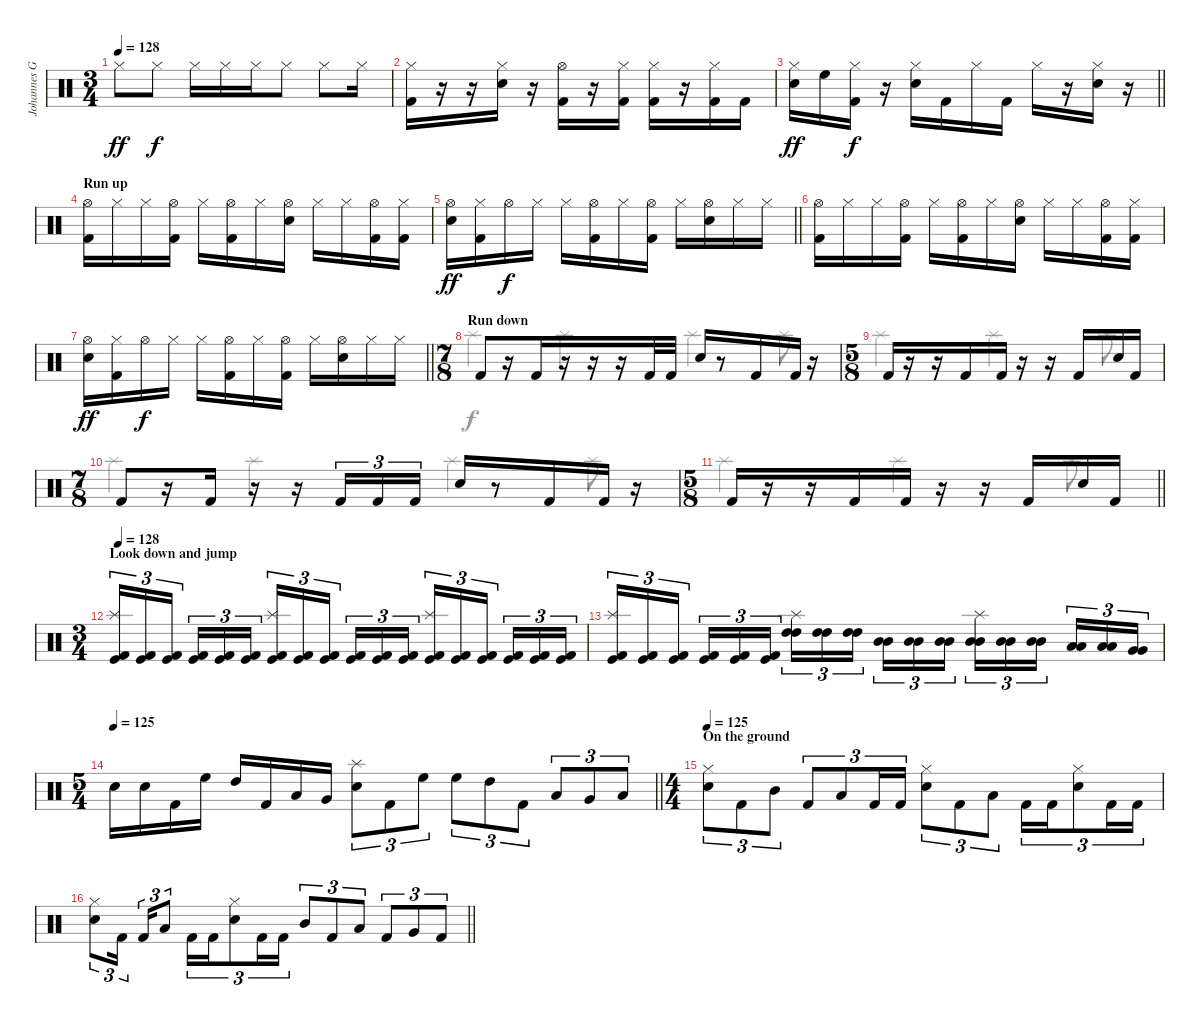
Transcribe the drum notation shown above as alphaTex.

\track ("Johannes Grossmann" "Johannes G") {instrument percussion}
\staff {score}
\articulation defaults
\voice
\ts (3 4)
\tempo 128
\clef neutral
\ks c "Hi-Hat (closed)".8{dy ff} "Hi-Hat (closed)".8{dy f} "Hi-Hat (closed)".16 "Hi-Hat (closed)".16 "Hi-Hat (closed)".16 "Hi-Hat (closed)".8 "Hi-Hat (closed)".8 "Hi-Hat (closed)".16
|
("Hi-Hat (closed)" "Kick (hit) 2").16 r.16 r.16 ("Hi-Hat (closed)" "Snare (hit) 2").16 r.16 ("Hi-Hat (open)" "Kick (hit) 2").16 r.16 ("Hi-Hat (closed)" "Kick (hit) 2").16 ("Hi-Hat (closed)" "Kick (hit) 2").16 r.16 ("Hi-Hat (closed)" "Kick (hit) 2").16 "Kick (hit) 2".16 |
\barLineRight lightlight
("Hi-Hat (closed)" "Snare (hit) 2").16{dy ff} "High Floor Tom (hit)".16 ("Hi-Hat (closed)" "Kick (hit) 2").16{dy f} r.16 ("Hi-Hat (closed)" "Snare (hit) 2").16 "Kick (hit) 2".16 "Hi-Hat (closed)".16 "Kick (hit) 2".16 "Hi-Hat (closed)".16 r.16 ("Hi-Hat (closed)" "Snare (hit) 2").16 r.16 |
\section ("" "Run up")
("Hi-Hat (open)" "Kick (hit) 2").16 "Hi-Hat (closed)".16 "Hi-Hat (closed)".16 ("Hi-Hat (open)" "Kick (hit) 2").16 "Hi-Hat (closed)".16 ("Hi-Hat (open)" "Kick (hit) 2").16 "Hi-Hat (closed)".16 ("Hi-Hat (open)" "Snare (hit) 2").16 "Hi-Hat (closed)".16 "Hi-Hat (closed)".16 ("Hi-Hat (open)" "Kick (hit) 2").16 ("Hi-Hat (closed)" "Kick (hit) 2").16 |
\barLineRight lightlight
("Hi-Hat (open)" "Snare (hit) 2").16{dy ff} ("Hi-Hat (closed)" "Kick (hit) 2").16 "Hi-Hat (open)".16{dy f} "Hi-Hat (closed)".16 "Hi-Hat (closed)".16 ("Hi-Hat (open)" "Kick (hit) 2").16 "Hi-Hat (closed)".16 ("Hi-Hat (open)" "Kick (hit) 2").16 "Hi-Hat (closed)".16 ("Hi-Hat (open)" "Snare (hit) 2").16 "Hi-Hat (closed)".16 "Hi-Hat (closed)".16 |
("Hi-Hat (open)" "Kick (hit) 2").16 "Hi-Hat (closed)".16 "Hi-Hat (closed)".16 ("Hi-Hat (open)" "Kick (hit) 2").16 "Hi-Hat (closed)".16 ("Hi-Hat (open)" "Kick (hit) 2").16 "Hi-Hat (closed)".16 ("Hi-Hat (open)" "Snare (hit) 2").16 "Hi-Hat (closed)".16 "Hi-Hat (closed)".16 ("Hi-Hat (open)" "Kick (hit) 2").16 ("Hi-Hat (closed)" "Kick (hit) 2").16 |
\barLineRight lightlight
("Hi-Hat (open)" "Snare (hit) 2").16{dy ff} ("Hi-Hat (closed)" "Kick (hit) 2").16 "Hi-Hat (open)".16{dy f} "Hi-Hat (closed)".16 "Hi-Hat (closed)".16 ("Hi-Hat (open)" "Kick (hit) 2").16 "Hi-Hat (closed)".16 ("Hi-Hat (open)" "Kick (hit) 2").16 "Hi-Hat (closed)".16 ("Hi-Hat (open)" "Snare (hit) 2").16 "Hi-Hat (closed)".16 "Hi-Hat (closed)".16 |
\ts (7 8)
\section ("" "Run down")
"Kick (hit) 2".8 r.16 "Kick (hit) 2".16 r.16 r.16 r.16 "Kick (hit) 2".32 "Kick (hit) 2".32 "Snare (hit) 2".16 r.8 "Kick (hit) 2".16 "Kick (hit) 2".16 r.16 |
\ts (5 8)
"Kick (hit) 2".16 r.16 r.16 "Kick (hit) 2".16 "Kick (hit) 2".16 r.16 r.16 "Kick (hit) 2".16 "Snare (hit) 2".16 "Kick (hit) 2".16 |
\ts (7 8)
"Kick (hit) 2".8 r.16 "Kick (hit) 2".16 r.16 r.16 "Kick (hit) 2".16{tu (3 2)} "Kick (hit) 2".16{tu (3 2)} "Kick (hit) 2".16{tu (3 2)} "Snare (hit) 2".16 r.8 "Kick (hit) 2".16 "Kick (hit) 2".16 r.16 |
\ts (5 8)
\barLineRight lightlight "Kick (hit) 2".16
r.16 r.16 "Kick (hit) 2".16 "Kick (hit) 2".16 r.16 r.16 "Kick (hit) 2".16 "Snare (hit) 2".16 "Kick (hit) 2".16 |
\ts (3 4)
\section ("" "Look down and jump")
\tempo 128
("Splash (hit)" "Kick (hit)" "Kick (hit) 2").16{tu (3 2)} ("Kick (hit)" "Kick (hit) 2").16{tu (3 2)} ("Kick (hit)" "Kick (hit) 2").16{tu (3 2) beam splitsecondary} ("Kick (hit)" "Kick (hit) 2").16{tu (3 2)} ("Kick (hit)" "Kick (hit) 2").16{tu (3 2)} ("Kick (hit)" "Kick (hit) 2").16{tu (3 2)} ("Splash (hit)" "Kick (hit)" "Kick (hit) 2").16{tu (3 2)} ("Kick (hit)" "Kick (hit) 2").16{tu (3 2)} ("Kick (hit)" "Kick (hit) 2").16{tu (3 2) beam splitsecondary} ("Kick (hit)" "Kick (hit) 2").16{tu (3 2)} ("Kick (hit)" "Kick (hit) 2").16{tu (3 2)} ("Kick (hit)" "Kick (hit) 2").16{tu (3 2)} ("Splash (hit)" "Kick (hit)" "Kick (hit) 2").16{tu (3 2)} ("Kick (hit)" "Kick (hit) 2").16{tu (3 2)} ("Kick (hit)" "Kick (hit) 2").16{tu (3 2) beam splitsecondary} ("Kick (hit)" "Kick (hit) 2").16{tu (3 2)} ("Kick (hit)" "Kick (hit) 2").16{tu (3 2)} ("Kick (hit)" "Kick (hit) 2").16{tu (3 2)} |
("Splash (hit)" "Kick (hit)" "Kick (hit) 2").16{tu (3 2)} ("Kick (hit)" "Kick (hit) 2").16{tu (3 2)} ("Kick (hit)" "Kick (hit) 2").16{tu (3 2) beam splitsecondary} ("Kick (hit)" "Kick (hit) 2").16{tu (3 2)} ("Kick (hit)" "Kick (hit) 2").16{tu (3 2)} ("Kick (hit)" "Kick (hit) 2").16{tu (3 2)} ("Splash (hit)" "High Tom (hit)" "High Tom (hit)").16{tu (3 2)} ("High Tom (hit)" "High Tom (hit)").16{tu (3 2)} ("High Tom (hit)" "High Tom (hit)").16{tu (3 2) beam splitsecondary} ("Mid Tom (hit)" "Mid Tom (hit)").16{tu (3 2)} ("Mid Tom (hit)" "Mid Tom (hit)").16{tu (3 2)} ("Mid Tom (hit)" "Mid Tom (hit)").16{tu (3 2)} ("Splash (hit)" "Mid Tom (hit)" "Mid Tom (hit)").16{tu (3 2)} ("Mid Tom (hit)" "Mid Tom (hit)").16{tu (3 2)} ("Mid Tom (hit)" "Mid Tom (hit)").16{tu (3 2) beam splitsecondary} ("Low Tom (hit)" "Low Tom (hit)").16{tu (3 2)} ("Low Tom (hit)" "Low Tom (hit)").16{tu (3 2)} ("Very Low Tom (hit)" "Very Low Tom (hit)").16{tu (3 2)} |
\ts (5 4)
\tempo 125
\barLineRight lightlight "Snare (hit) 2".16 "Snare (hit) 2".16 "Kick (hit) 2".16 "High Floor Tom (hit)".16 "High Tom (hit)".16 "Kick (hit) 2".16 "Low Tom (hit)".16 "Very Low Tom (hit)".16
("Splash (hit)" "Snare (hit) 2").8{tu (3 2)} "Kick (hit) 2".8{tu (3 2)} "High Floor Tom (hit)".8{tu (3 2)} "High Floor Tom (hit)".8{tu (3 2)} "High Tom (hit)".8{tu (3 2)} "Kick (hit) 2".8{tu (3 2)} "Low Tom (hit)".8{tu (3 2)} "Very Low Tom (hit)".8{tu (3 2)} "Low Floor Tom (hit)".8{tu (3 2)} |
\ts (4 4)
\section ("" "On the ground")
\tempo 125
("Hi-Hat (closed)" "Snare (hit) 2").8{tu (3 2)} "Kick (hit) 2".8{tu (3 2)} "Mid Tom (hit)".8{tu (3 2)} "Kick (hit) 2".8{tu (3 2)} "Low Tom (hit)".8{tu (3 2)} "Kick (hit) 2".16{tu (3 2)} "Kick (hit) 2".16{tu (3 2)} ("Hi-Hat (closed)" "Snare (hit) 2").8{tu (3 2)} "Kick (hit) 2".8{tu (3 2)} "Low Tom (hit)".8{tu (3 2)} "Kick (hit) 2".16{tu (3 2)} "Kick (hit) 2".16{tu (3 2)} ("Hi-Hat (closed)" "Snare (hit) 2").8{tu (3 2)} "Kick (hit) 2".16{tu (3 2)} "Kick (hit) 2".16{tu (3 2)} |
\barLineRight lightlight
("Hi-Hat (closed)" "Snare (hit) 2").8{tu (3 2)} "Kick (hit) 2".16{tu (3 2) beam splitsecondary} "Kick (hit) 2".16{tu (3 2)} "Low Tom (hit)".8{tu (3 2)} "Kick (hit) 2".16{tu (3 2)} "Kick (hit) 2".16{tu (3 2)} ("Hi-Hat (closed)" "Snare (hit) 2").8{tu (3 2)} "Kick (hit) 2".16{tu (3 2)} "Kick (hit) 2".16{tu (3 2)} "Mid Tom (hit)".8{tu (3 2)} "Kick (hit) 2".8{tu (3 2)} "Low Tom (hit)".8{tu (3 2)} "Kick (hit) 2".8{tu (3 2)} "Very Low Tom (hit)".8{tu (3 2)} "Kick (hit) 2".8{tu (3 2)}
\voice
\clef neutral
\ottava regular
\simile none
\ks c
|
|
\barLineRight lightlight
|
|
\barLineRight lightlight
|
|
\barLineRight lightlight
|
"Splash (hit)".4 "Splash (hit)".4 "Splash (hit)".4 "Splash (hit)".8 |
"Splash (hit)".4 "Splash (hit)".4 "Splash (hit)".8 |
"Splash (hit)".4 "Splash (hit)".4 "Splash (hit)".4 "Splash (hit)".8 |
\barLineRight lightlight "Splash (hit)".4 "Splash (hit)".4 "Splash (hit)".8
|
|
|
\barLineRight lightlight
|
|
\barLineRight lightlight
